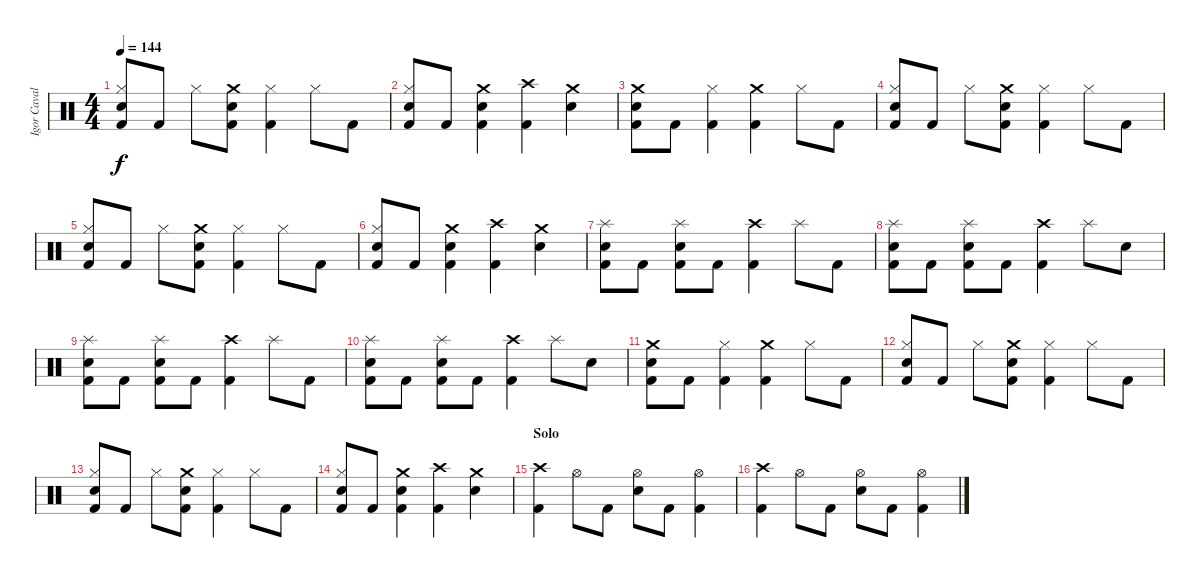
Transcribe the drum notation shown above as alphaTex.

\track ("Igor Cavalera" "Igor Caval") {instrument percussion}
\staff {score}
\articulation defaults
\ts (4 4)
\tempo 144
\clef neutral
\ks c
("Snare (hit) 2" "Hi-Hat (closed)" "Kick (hit) 2").8{dy f} "Kick (hit) 2".8 "Hi-Hat (closed)".8 ("Snare (hit) 2" "Kick (hit) 2" "Crash medium (hit)").8 ("Kick (hit) 2" "Hi-Hat (closed)").4 "Hi-Hat (closed)".8 "Kick (hit) 2".8 |
("Snare (hit) 2" "Hi-Hat (closed)" "Kick (hit) 2").8 "Kick (hit) 2".8 ("Snare (hit) 2" "Kick (hit) 2" "Crash medium (hit)").4 ("Kick (hit) 2" "Crash high (hit)").4 ("Crash medium (hit)" "Snare (hit) 2").4 |
("Snare (hit) 2" "Crash medium (hit)" "Kick (hit) 2").8 "Kick (hit) 2".8 ("Hi-Hat (closed)" "Kick (hit) 2").4 ("Kick (hit) 2" "Crash medium (hit)").4 "Hi-Hat (closed)".8 "Kick (hit) 2".8 |
("Snare (hit) 2" "Hi-Hat (closed)" "Kick (hit) 2").8 "Kick (hit) 2".8 "Hi-Hat (closed)".8 ("Snare (hit) 2" "Kick (hit) 2" "Crash medium (hit)").8 ("Kick (hit) 2" "Hi-Hat (closed)").4 "Hi-Hat (closed)".8 "Kick (hit) 2".8 |
("Snare (hit) 2" "Hi-Hat (closed)" "Kick (hit) 2").8 "Kick (hit) 2".8 "Hi-Hat (closed)".8 ("Snare (hit) 2" "Kick (hit) 2" "Crash medium (hit)").8 ("Kick (hit) 2" "Hi-Hat (closed)").4 "Hi-Hat (closed)".8 "Kick (hit) 2".8 |
("Snare (hit) 2" "Hi-Hat (closed)" "Kick (hit) 2").8 "Kick (hit) 2".8 ("Snare (hit) 2" "Kick (hit) 2" "Crash medium (hit)").4 ("Kick (hit) 2" "Crash high (hit)").4 ("Crash medium (hit)" "Snare (hit) 2").4 |
("Kick (hit) 2" "Snare (hit) 2" "Splash (hit)").8 "Kick (hit) 2".8 ("Kick (hit) 2" "Snare (hit) 2" "Splash (hit)").8 "Kick (hit) 2".8 ("Crash high (hit)" "Kick (hit) 2").4 "Splash (hit)".8 "Kick (hit) 2".8 |
("Kick (hit) 2" "Snare (hit) 2" "Splash (hit)").8 "Kick (hit) 2".8 ("Kick (hit) 2" "Snare (hit) 2" "Splash (hit)").8 "Kick (hit) 2".8 ("Crash high (hit)" "Kick (hit) 2").4 "Splash (hit)".8 "Snare (hit) 2".8 |
("Kick (hit) 2" "Snare (hit) 2" "Splash (hit)").8 "Kick (hit) 2".8 ("Kick (hit) 2" "Snare (hit) 2" "Splash (hit)").8 "Kick (hit) 2".8 ("Crash high (hit)" "Kick (hit) 2").4 "Splash (hit)".8 "Kick (hit) 2".8 |
("Kick (hit) 2" "Snare (hit) 2" "Splash (hit)").8 "Kick (hit) 2".8 ("Kick (hit) 2" "Snare (hit) 2" "Splash (hit)").8 "Kick (hit) 2".8 ("Crash high (hit)" "Kick (hit) 2").4 "Splash (hit)".8 "Snare (hit) 2".8 |
("Snare (hit) 2" "Crash medium (hit)" "Kick (hit) 2").8 "Kick (hit) 2".8 ("Hi-Hat (closed)" "Kick (hit) 2").4 ("Kick (hit) 2" "Crash medium (hit)").4 "Hi-Hat (closed)".8 "Kick (hit) 2".8 |
("Snare (hit) 2" "Hi-Hat (closed)" "Kick (hit) 2").8 "Kick (hit) 2".8 "Hi-Hat (closed)".8 ("Snare (hit) 2" "Kick (hit) 2" "Crash medium (hit)").8 ("Kick (hit) 2" "Hi-Hat (closed)").4 "Hi-Hat (closed)".8 "Kick (hit) 2".8 |
("Snare (hit) 2" "Hi-Hat (closed)" "Kick (hit) 2").8 "Kick (hit) 2".8 "Hi-Hat (closed)".8 ("Snare (hit) 2" "Kick (hit) 2" "Crash medium (hit)").8 ("Kick (hit) 2" "Hi-Hat (closed)").4 "Hi-Hat (closed)".8 "Kick (hit) 2".8 |
("Snare (hit) 2" "Hi-Hat (closed)" "Kick (hit) 2").8 "Kick (hit) 2".8 ("Snare (hit) 2" "Kick (hit) 2" "Crash medium (hit)").4 ("Kick (hit) 2" "Crash high (hit)").4 ("Crash medium (hit)" "Snare (hit) 2").4 |
\section ("" "Solo")
("Crash high (hit)" "Kick (hit) 2").4 "Hi-Hat (open)".8 "Kick (hit) 2".8 ("Snare (hit) 2" "Hi-Hat (open)").8 "Kick (hit) 2".8 ("Hi-Hat (open)" "Kick (hit) 2").4 |
("Crash high (hit)" "Kick (hit) 2").4 "Hi-Hat (open)".8 "Kick (hit) 2".8 ("Snare (hit) 2" "Hi-Hat (open)").8 "Kick (hit) 2".8 ("Hi-Hat (open)" "Kick (hit) 2").4
